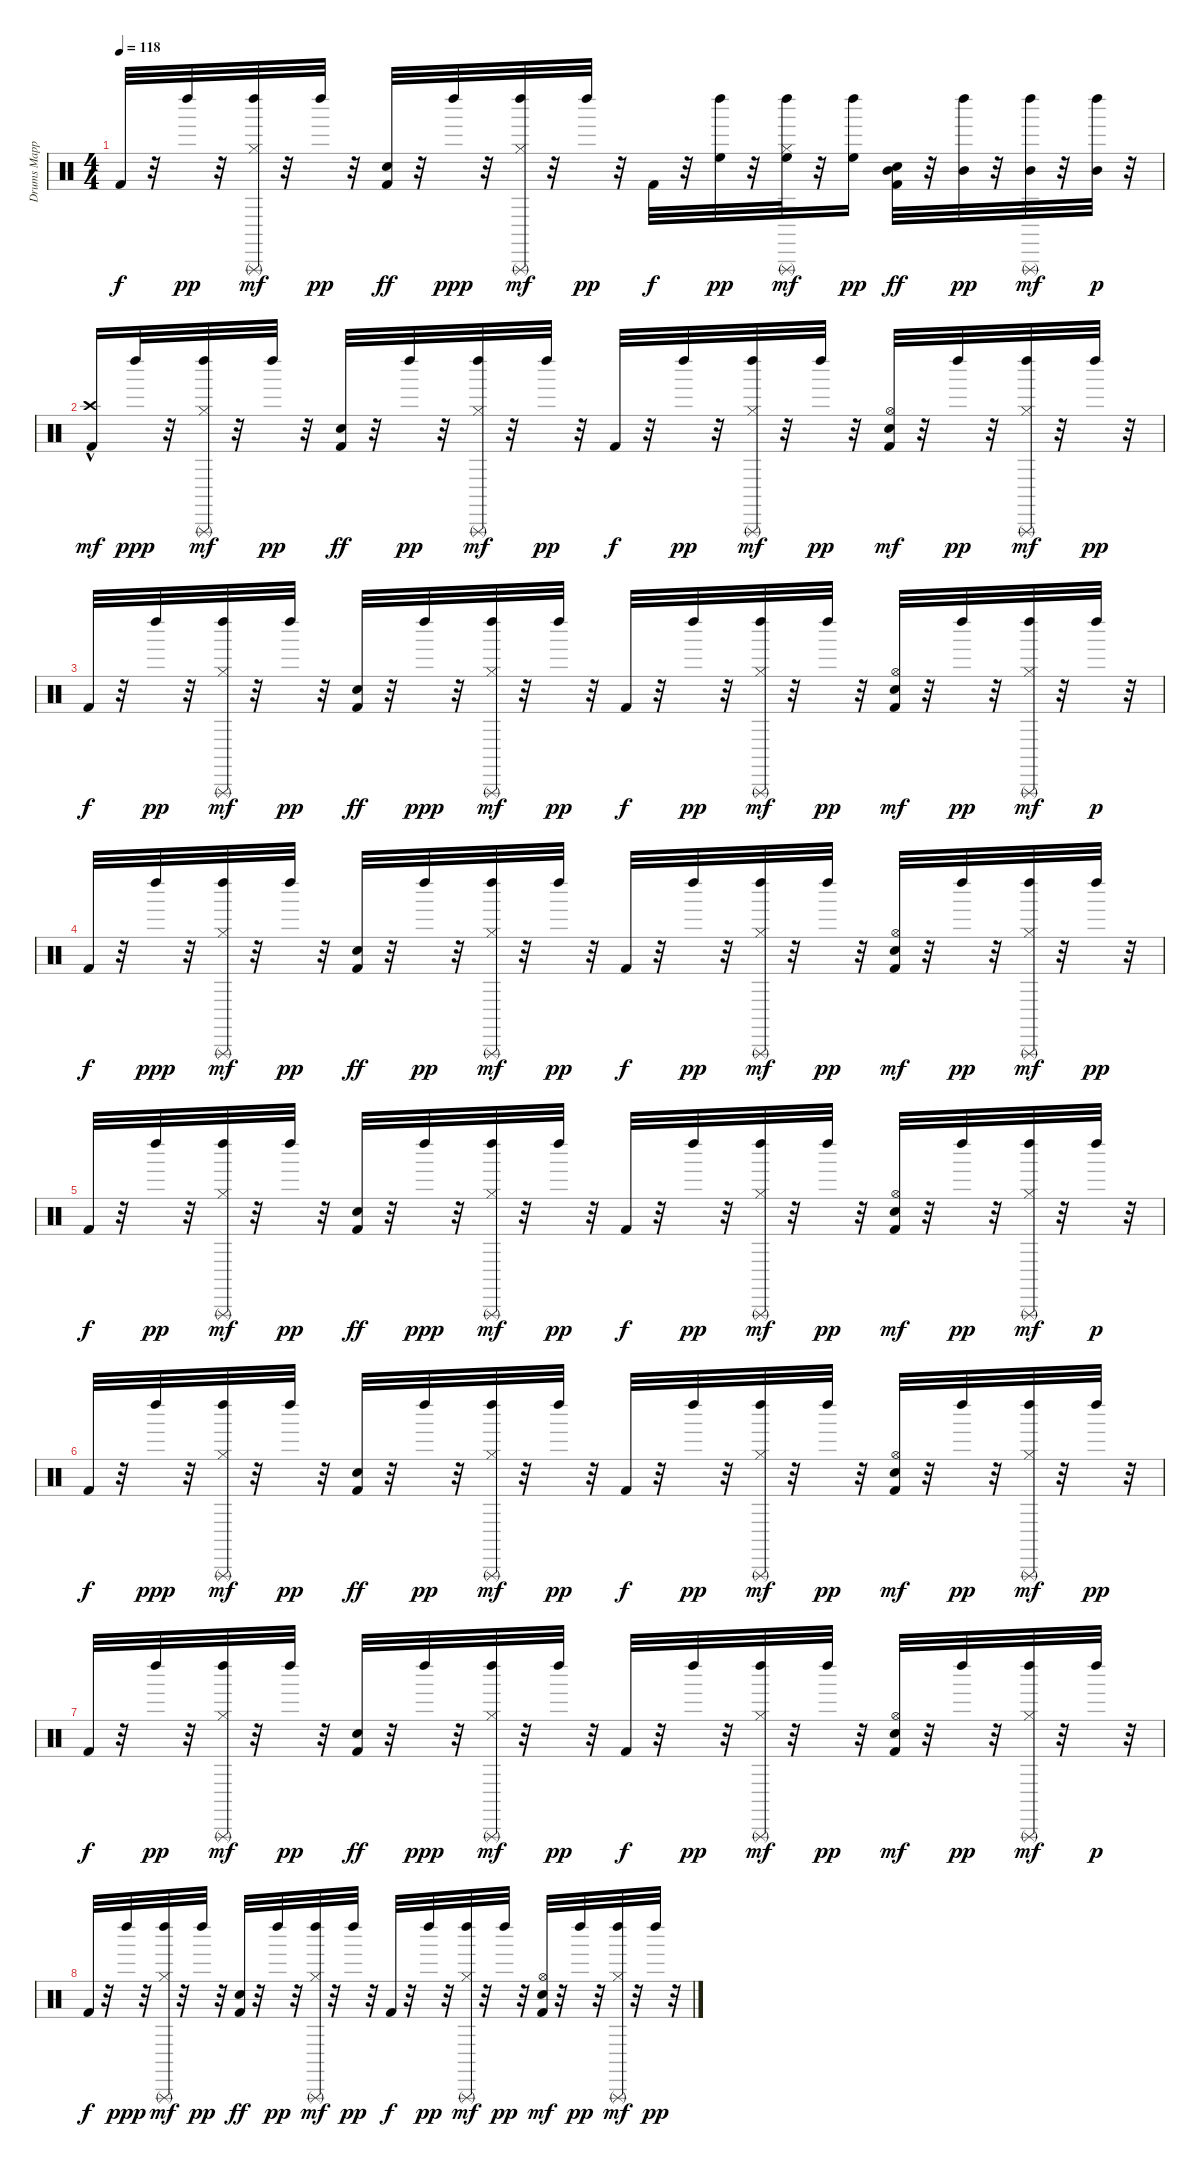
\track ("Drums Mapped*merged" "Drums Mapp") {instrument percussion}
\staff {score}
\articulation defaults
\ts (4 4)
\tempo 118
\clef neutral
\ks c "Kick (hit) 2".32{dy f}
r.32 "Left Maraca (hit)".32{dy pp} r.32 ("Hi-Hat (closed)" "Left Maraca (hit)" "Triangle (rnute)").32{dy mf} r.32 "Left Maraca (hit)".32{dy pp} r.32 ("Kick (hit) 2" "Snare (hit) 2").32{dy ff} r.32 "Left Maraca (hit)".32{dy ppp} r.32 ("Hi-Hat (closed)" "Left Maraca (hit)" "Triangle (rnute)").32{dy mf} r.32 "Left Maraca (hit)".32{dy pp} r.32 "Kick (hit) 2".32{dy f} r.32 ("High Floor Tom (hit)" "Left Maraca (hit)").32{dy pp} r.32 ("Hi-Hat (closed)" "High Floor Tom (hit)" "Left Maraca (hit)" "Triangle (rnute)").32{dy mf} r.32 ("High Floor Tom (hit)" "Left Maraca (hit)").16{dy pp} ("Kick (hit) 2" "Snare (hit) 2" "Mid Tom (hit)").32{dy ff} r.32 ("Mid Tom (hit)" "Left Maraca (hit)").32{dy pp} r.32 ("Mid Tom (hit)" "Left Maraca (hit)" "Triangle (rnute)").32{dy mf} r.32 ("Mid Tom (hit)" "Left Maraca (hit)").32{dy p} r.32 |
("Kick (hit) 2" "Crash high (hit)"{hac}).16{dy mf} "Left Maraca (hit)".32{dy ppp} r.32 ("Hi-Hat (closed)" "Left Maraca (hit)" "Triangle (rnute)").32{dy mf} r.32 "Left Maraca (hit)".32{dy pp} r.32 ("Kick (hit) 2" "Snare (hit) 2").32{dy ff} r.32 "Left Maraca (hit)".32{dy pp} r.32 ("Hi-Hat (closed)" "Left Maraca (hit)" "Triangle (rnute)").32{dy mf} r.32 "Left Maraca (hit)".32{dy pp} r.32 "Kick (hit) 2".32{dy f} r.32 "Left Maraca (hit)".32{dy pp} r.32 ("Hi-Hat (closed)" "Left Maraca (hit)" "Triangle (rnute)").32{dy mf} r.32 "Left Maraca (hit)".32{dy pp} r.32 ("Kick (hit) 2" "Snare (hit) 2" "Hi-Hat (open)").32{dy mf} r.32 "Left Maraca (hit)".32{dy pp} r.32 ("Hi-Hat (closed)" "Left Maraca (hit)" "Triangle (rnute)").32{dy mf} r.32 "Left Maraca (hit)".32{dy pp} r.32 |
"Kick (hit) 2".32{dy f} r.32 "Left Maraca (hit)".32{dy pp} r.32 ("Hi-Hat (closed)" "Left Maraca (hit)" "Triangle (rnute)").32{dy mf} r.32 "Left Maraca (hit)".32{dy pp} r.32 ("Kick (hit) 2" "Snare (hit) 2").32{dy ff} r.32 "Left Maraca (hit)".32{dy ppp} r.32 ("Hi-Hat (closed)" "Left Maraca (hit)" "Triangle (rnute)").32{dy mf} r.32 "Left Maraca (hit)".32{dy pp} r.32 "Kick (hit) 2".32{dy f} r.32 "Left Maraca (hit)".32{dy pp} r.32 ("Hi-Hat (closed)" "Left Maraca (hit)" "Triangle (rnute)").32{dy mf} r.32 "Left Maraca (hit)".32{dy pp} r.32 ("Kick (hit) 2" "Snare (hit) 2" "Hi-Hat (open)").32{dy mf} r.32 "Left Maraca (hit)".32{dy pp} r.32 ("Hi-Hat (closed)" "Left Maraca (hit)" "Triangle (rnute)").32{dy mf} r.32 "Left Maraca (hit)".32{dy p} r.32 |
"Kick (hit) 2".32{dy f} r.32 "Left Maraca (hit)".32{dy ppp} r.32 ("Hi-Hat (closed)" "Left Maraca (hit)" "Triangle (rnute)").32{dy mf} r.32 "Left Maraca (hit)".32{dy pp} r.32 ("Kick (hit) 2" "Snare (hit) 2").32{dy ff} r.32 "Left Maraca (hit)".32{dy pp} r.32 ("Hi-Hat (closed)" "Left Maraca (hit)" "Triangle (rnute)").32{dy mf} r.32 "Left Maraca (hit)".32{dy pp} r.32 "Kick (hit) 2".32{dy f} r.32 "Left Maraca (hit)".32{dy pp} r.32 ("Hi-Hat (closed)" "Left Maraca (hit)" "Triangle (rnute)").32{dy mf} r.32 "Left Maraca (hit)".32{dy pp} r.32 ("Kick (hit) 2" "Snare (hit) 2" "Hi-Hat (open)").32{dy mf} r.32 "Left Maraca (hit)".32{dy pp} r.32 ("Hi-Hat (closed)" "Left Maraca (hit)" "Triangle (rnute)").32{dy mf} r.32 "Left Maraca (hit)".32{dy pp} r.32 |
"Kick (hit) 2".32{dy f} r.32 "Left Maraca (hit)".32{dy pp} r.32 ("Hi-Hat (closed)" "Left Maraca (hit)" "Triangle (rnute)").32{dy mf} r.32 "Left Maraca (hit)".32{dy pp} r.32 ("Kick (hit) 2" "Snare (hit) 2").32{dy ff} r.32 "Left Maraca (hit)".32{dy ppp} r.32 ("Hi-Hat (closed)" "Left Maraca (hit)" "Triangle (rnute)").32{dy mf} r.32 "Left Maraca (hit)".32{dy pp} r.32 "Kick (hit) 2".32{dy f} r.32 "Left Maraca (hit)".32{dy pp} r.32 ("Hi-Hat (closed)" "Left Maraca (hit)" "Triangle (rnute)").32{dy mf} r.32 "Left Maraca (hit)".32{dy pp} r.32 ("Kick (hit) 2" "Snare (hit) 2" "Hi-Hat (open)").32{dy mf} r.32 "Left Maraca (hit)".32{dy pp} r.32 ("Hi-Hat (closed)" "Left Maraca (hit)" "Triangle (rnute)").32{dy mf} r.32 "Left Maraca (hit)".32{dy p} r.32 |
"Kick (hit) 2".32{dy f} r.32 "Left Maraca (hit)".32{dy ppp} r.32 ("Hi-Hat (closed)" "Left Maraca (hit)" "Triangle (rnute)").32{dy mf} r.32 "Left Maraca (hit)".32{dy pp} r.32 ("Kick (hit) 2" "Snare (hit) 2").32{dy ff} r.32 "Left Maraca (hit)".32{dy pp} r.32 ("Hi-Hat (closed)" "Left Maraca (hit)" "Triangle (rnute)").32{dy mf} r.32 "Left Maraca (hit)".32{dy pp} r.32 "Kick (hit) 2".32{dy f} r.32 "Left Maraca (hit)".32{dy pp} r.32 ("Hi-Hat (closed)" "Left Maraca (hit)" "Triangle (rnute)").32{dy mf} r.32 "Left Maraca (hit)".32{dy pp} r.32 ("Kick (hit) 2" "Snare (hit) 2" "Hi-Hat (open)").32{dy mf} r.32 "Left Maraca (hit)".32{dy pp} r.32 ("Hi-Hat (closed)" "Left Maraca (hit)" "Triangle (rnute)").32{dy mf} r.32 "Left Maraca (hit)".32{dy pp} r.32 |
"Kick (hit) 2".32{dy f} r.32 "Left Maraca (hit)".32{dy pp} r.32 ("Hi-Hat (closed)" "Left Maraca (hit)" "Triangle (rnute)").32{dy mf} r.32 "Left Maraca (hit)".32{dy pp} r.32 ("Kick (hit) 2" "Snare (hit) 2").32{dy ff} r.32 "Left Maraca (hit)".32{dy ppp} r.32 ("Hi-Hat (closed)" "Left Maraca (hit)" "Triangle (rnute)").32{dy mf} r.32 "Left Maraca (hit)".32{dy pp} r.32 "Kick (hit) 2".32{dy f} r.32 "Left Maraca (hit)".32{dy pp} r.32 ("Hi-Hat (closed)" "Left Maraca (hit)" "Triangle (rnute)").32{dy mf} r.32 "Left Maraca (hit)".32{dy pp} r.32 ("Kick (hit) 2" "Snare (hit) 2" "Hi-Hat (open)").32{dy mf} r.32 "Left Maraca (hit)".32{dy pp} r.32 ("Hi-Hat (closed)" "Left Maraca (hit)" "Triangle (rnute)").32{dy mf} r.32 "Left Maraca (hit)".32{dy p} r.32 |
"Kick (hit) 2".32{dy f} r.32 "Left Maraca (hit)".32{dy ppp} r.32 ("Hi-Hat (closed)" "Left Maraca (hit)" "Triangle (rnute)").32{dy mf} r.32 "Left Maraca (hit)".32{dy pp} r.32 ("Kick (hit) 2" "Snare (hit) 2").32{dy ff} r.32 "Left Maraca (hit)".32{dy pp} r.32 ("Hi-Hat (closed)" "Left Maraca (hit)" "Triangle (rnute)").32{dy mf} r.32 "Left Maraca (hit)".32{dy pp} r.32 "Kick (hit) 2".32{dy f} r.32 "Left Maraca (hit)".32{dy pp} r.32 ("Hi-Hat (closed)" "Left Maraca (hit)" "Triangle (rnute)").32{dy mf} r.32 "Left Maraca (hit)".32{dy pp} r.32 ("Kick (hit) 2" "Snare (hit) 2" "Hi-Hat (open)").32{dy mf} r.32 "Left Maraca (hit)".32{dy pp} r.32 ("Hi-Hat (closed)" "Left Maraca (hit)" "Triangle (rnute)").32{dy mf} r.32 "Left Maraca (hit)".32{dy pp} r.32
